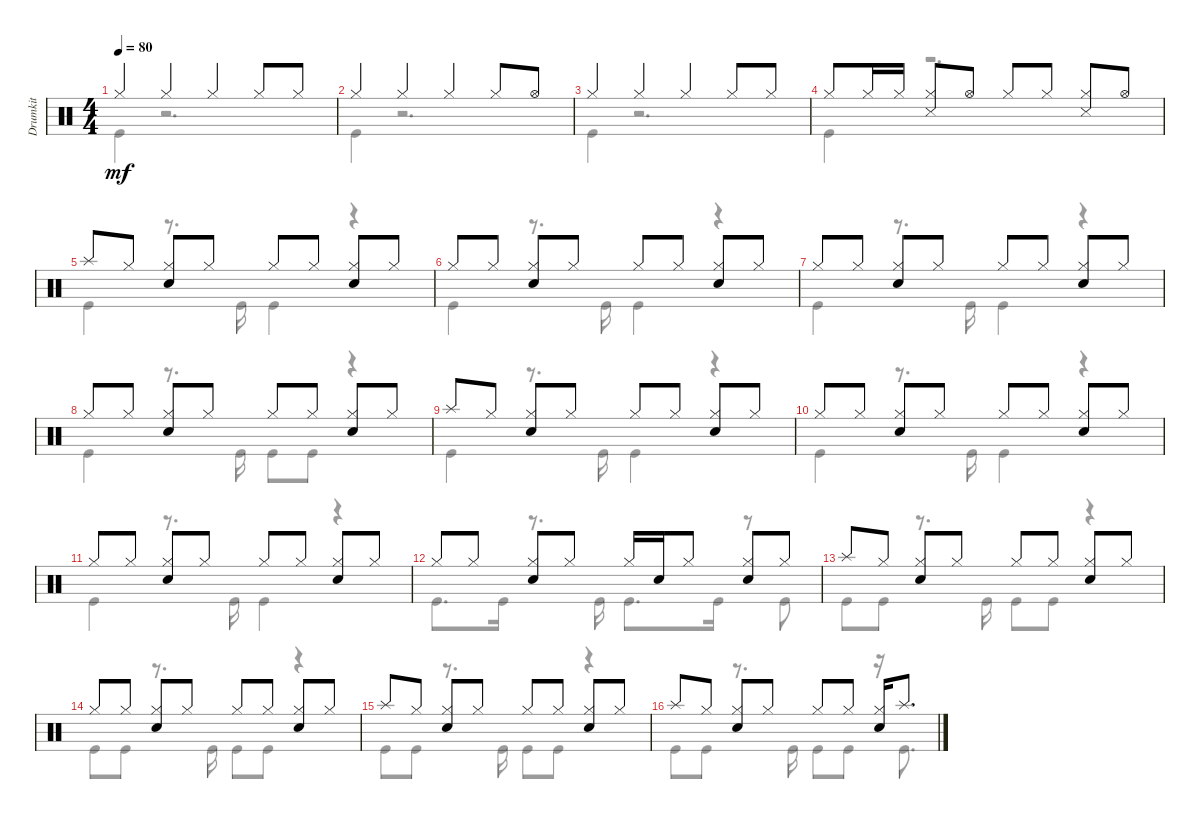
\track ("Drumkit" "Drumkit") {instrument percussion}
\staff {score}
\articulation defaults
\voice
\ts (4 4)
\tempo 80
\clef neutral
\ks c "Hi-Hat (closed)".4{dy mf} "Hi-Hat (closed)".4 "Hi-Hat (closed)".4 "Hi-Hat (closed)".8 "Hi-Hat (closed)".8
|
"Hi-Hat (closed)".4 "Hi-Hat (closed)".4 "Hi-Hat (closed)".4 "Hi-Hat (closed)".8 "Hi-Hat (open)".8 |
"Hi-Hat (closed)".4 "Hi-Hat (closed)".4 "Hi-Hat (closed)".4 "Hi-Hat (closed)".8 "Hi-Hat (closed)".8 |
"Hi-Hat (closed)".8 "Hi-Hat (closed)".16 "Hi-Hat (closed)".16 ("Hi-Hat (closed)" "Snare (side stick) 3").8 "Hi-Hat (open)".8 "Hi-Hat (closed)".8 "Hi-Hat (closed)".8 ("Hi-Hat (closed)" "Snare (side stick) 3").8 "Hi-Hat (open)".8 |
"Splash (hit)".8 "Hi-Hat (closed)".8 ("Hi-Hat (closed)" "Snare (hit) 2").8 "Hi-Hat (closed)".8 "Hi-Hat (closed)".8 "Hi-Hat (closed)".8 ("Hi-Hat (closed)" "Snare (hit) 2").8 "Hi-Hat (closed)".8 |
"Hi-Hat (closed)".8 "Hi-Hat (closed)".8 ("Hi-Hat (closed)" "Snare (hit) 2").8 "Hi-Hat (closed)".8 "Hi-Hat (closed)".8 "Hi-Hat (closed)".8 ("Hi-Hat (closed)" "Snare (hit) 2").8 "Hi-Hat (closed)".8 |
"Hi-Hat (closed)".8 "Hi-Hat (closed)".8 ("Hi-Hat (closed)" "Snare (hit) 2").8 "Hi-Hat (closed)".8 "Hi-Hat (closed)".8 "Hi-Hat (closed)".8 ("Hi-Hat (closed)" "Snare (hit) 2").8 "Hi-Hat (closed)".8 |
"Hi-Hat (closed)".8 "Hi-Hat (closed)".8 ("Hi-Hat (closed)" "Snare (hit) 2").8 "Hi-Hat (closed)".8 "Hi-Hat (closed)".8 "Hi-Hat (closed)".8 ("Hi-Hat (closed)" "Snare (hit) 2").8 "Hi-Hat (closed)".8 |
"Splash (hit)".8 "Hi-Hat (closed)".8 ("Hi-Hat (closed)" "Snare (hit) 2").8 "Hi-Hat (closed)".8 "Hi-Hat (closed)".8 "Hi-Hat (closed)".8 ("Hi-Hat (closed)" "Snare (hit) 2").8 "Hi-Hat (closed)".8 |
"Hi-Hat (closed)".8 "Hi-Hat (closed)".8 ("Hi-Hat (closed)" "Snare (hit) 2").8 "Hi-Hat (closed)".8 "Hi-Hat (closed)".8 "Hi-Hat (closed)".8 ("Hi-Hat (closed)" "Snare (hit) 2").8 "Hi-Hat (closed)".8 |
"Hi-Hat (closed)".8 "Hi-Hat (closed)".8 ("Hi-Hat (closed)" "Snare (hit) 2").8 "Hi-Hat (closed)".8 "Hi-Hat (closed)".8 "Hi-Hat (closed)".8 ("Hi-Hat (closed)" "Snare (hit) 2").8 "Hi-Hat (closed)".8 |
"Hi-Hat (closed)".8 "Hi-Hat (closed)".8 ("Hi-Hat (closed)" "Snare (hit) 2").8 "Hi-Hat (closed)".8 "Hi-Hat (closed)".16 "Snare (hit) 2".16 "Hi-Hat (closed)".8 ("Hi-Hat (closed)" "Snare (hit) 2").8 "Hi-Hat (closed)".8 |
"Splash (hit)".8 "Hi-Hat (closed)".8 ("Hi-Hat (closed)" "Snare (hit) 2").8 "Hi-Hat (closed)".8 "Hi-Hat (closed)".8 "Hi-Hat (closed)".8 ("Hi-Hat (closed)" "Snare (hit) 2").8 "Hi-Hat (closed)".8 |
"Hi-Hat (closed)".8 "Hi-Hat (closed)".8 ("Hi-Hat (closed)" "Snare (hit) 2").8 "Hi-Hat (closed)".8 "Hi-Hat (closed)".8 "Hi-Hat (closed)".8 ("Hi-Hat (closed)" "Snare (hit) 2").8 "Hi-Hat (closed)".8 |
"Splash (hit)".8 "Hi-Hat (closed)".8 ("Hi-Hat (closed)" "Snare (hit) 2").8 "Hi-Hat (closed)".8 "Hi-Hat (closed)".8 "Hi-Hat (closed)".8 ("Hi-Hat (closed)" "Snare (hit) 2").8 "Hi-Hat (closed)".8 |
"Splash (hit)".8 "Hi-Hat (closed)".8 ("Hi-Hat (closed)" "Snare (hit) 2").8 "Hi-Hat (closed)".8 "Hi-Hat (closed)".8 "Hi-Hat (closed)".8 ("Hi-Hat (closed)" "Snare (hit) 2").16 "Splash (hit)".8{d}
\voice
\clef neutral
\ottava regular
\simile none
\ks c "Kick (hit)".4{dy mf}
r.2{d} |
"Kick (hit)".4 r.2{d} |
"Kick (hit)".4 r.2{d} |
"Kick (hit)".4 r.2{d} |
"Kick (hit)".4 r.8{d} "Kick (hit)".16 "Kick (hit)".4 r.4 |
"Kick (hit)".4 r.8{d} "Kick (hit)".16 "Kick (hit)".4 r.4 |
"Kick (hit)".4 r.8{d} "Kick (hit)".16 "Kick (hit)".4 r.4 |
"Kick (hit)".4 r.8{d} "Kick (hit)".16 "Kick (hit)".8 "Kick (hit)".8 r.4 |
"Kick (hit)".4 r.8{d} "Kick (hit)".16 "Kick (hit)".4 r.4 |
"Kick (hit)".4 r.8{d} "Kick (hit)".16 "Kick (hit)".4 r.4 |
"Kick (hit)".4 r.8{d} "Kick (hit)".16 "Kick (hit)".4 r.4 |
"Kick (hit)".8{d} "Kick (hit)".16 r.8{d} "Kick (hit)".16 "Kick (hit)".8{d} "Kick (hit)".16 r.8 "Kick (hit)".8 |
"Kick (hit)".8 "Kick (hit)".8 r.8{d} "Kick (hit)".16 "Kick (hit)".8 "Kick (hit)".8 r.4 |
"Kick (hit)".8 "Kick (hit)".8 r.8{d} "Kick (hit)".16 "Kick (hit)".8 "Kick (hit)".8 r.4 |
"Kick (hit)".8 "Kick (hit)".8 r.8{d} "Kick (hit)".16 "Kick (hit)".8 "Kick (hit)".8 r.4 |
"Kick (hit)".8 "Kick (hit)".8 r.8{d} "Kick (hit)".16 "Kick (hit)".8 "Kick (hit)".8 r.16 "Kick (hit)".8{d}
